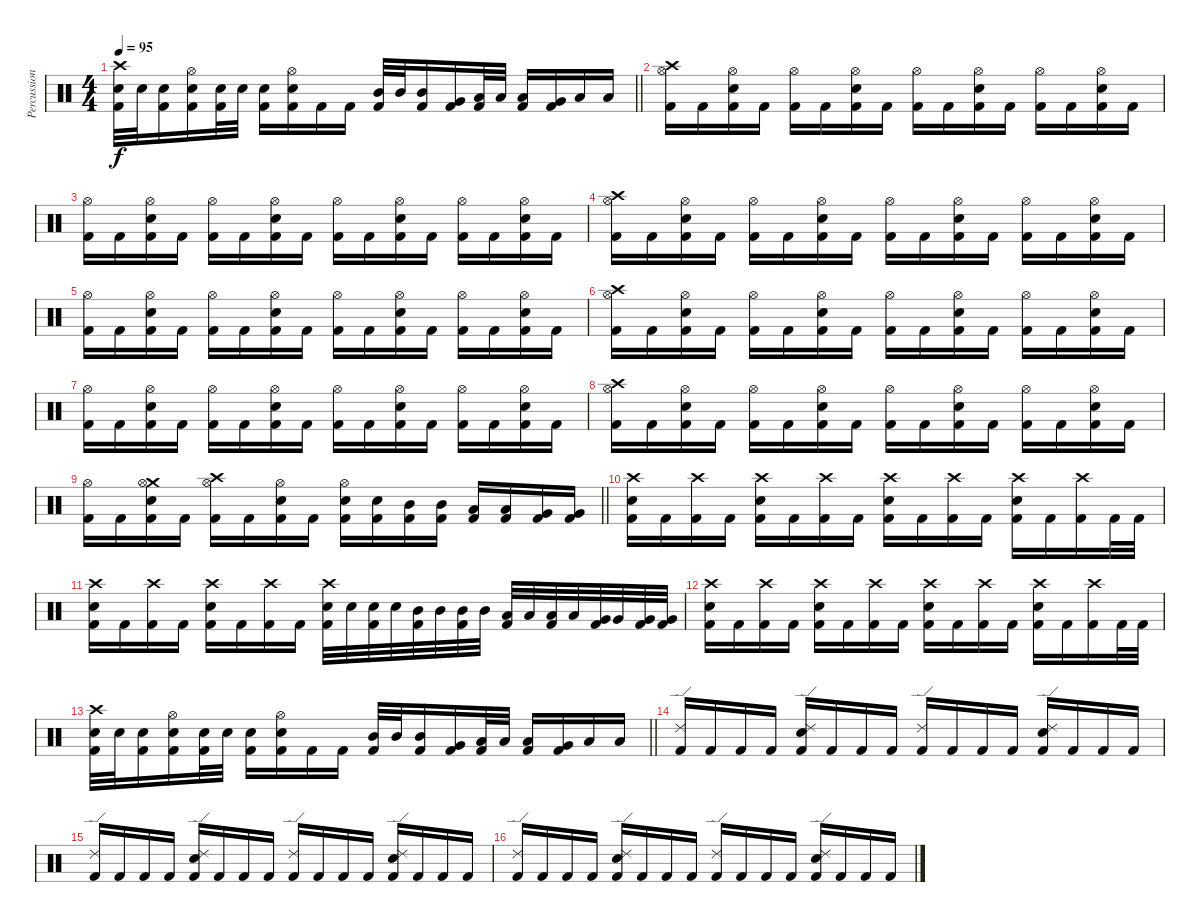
\track ("Percussion" "Percussion") {instrument percussion}
\staff {score}
\articulation defaults
\ts (4 4)
\tempo 95
\clef neutral
\barLineRight lightlight
\ks c
("Crash high (hit)" "Snare (hit) 2" "Kick (hit) 2").32{dy f} "Snare (hit) 2".32 ("Snare (hit) 2" "Kick (hit) 2").16 ("Hi-Hat (open)" "Snare (hit) 2" "Kick (hit) 2").16 ("Snare (hit) 2" "Kick (hit) 2").32 "Snare (hit) 2".32 ("Snare (hit) 2" "Kick (hit) 2").16 ("Hi-Hat (open)" "Snare (hit) 2" "Kick (hit) 2").16 "Kick (hit) 2".16 "Kick (hit) 2".16 ("Mid Tom (hit)" "Kick (hit) 2").32 "Mid Tom (hit)".32 ("Mid Tom (hit)" "Kick (hit) 2").16 ("Very Low Tom (hit)" "Kick (hit) 2").16 ("Low Tom (hit)" "Kick (hit) 2").32 "Low Tom (hit)".32 ("Low Tom (hit)" "Kick (hit) 2").16 ("Very Low Tom (hit)" "Kick (hit) 2").16 "Low Floor Tom (hit)".16 "Low Floor Tom (hit)".16 |
("Crash high (hit)" "Hi-Hat (open)" "Kick (hit) 2").16 "Kick (hit) 2".16 ("Hi-Hat (open)" "Snare (hit) 2" "Kick (hit) 2").16 "Kick (hit) 2".16 ("Hi-Hat (open)" "Kick (hit) 2").16 "Kick (hit) 2".16 ("Hi-Hat (open)" "Snare (hit) 2" "Kick (hit) 2").16 "Kick (hit) 2".16 ("Hi-Hat (open)" "Kick (hit) 2").16 "Kick (hit) 2".16 ("Hi-Hat (open)" "Snare (hit) 2" "Kick (hit) 2").16 "Kick (hit) 2".16 ("Hi-Hat (open)" "Kick (hit) 2").16 "Kick (hit) 2".16 ("Hi-Hat (open)" "Snare (hit) 2" "Kick (hit) 2").16 "Kick (hit) 2".16 |
("Hi-Hat (open)" "Kick (hit) 2").16 "Kick (hit) 2".16 ("Hi-Hat (open)" "Snare (hit) 2" "Kick (hit) 2").16 "Kick (hit) 2".16 ("Hi-Hat (open)" "Kick (hit) 2").16 "Kick (hit) 2".16 ("Hi-Hat (open)" "Snare (hit) 2" "Kick (hit) 2").16 "Kick (hit) 2".16 ("Hi-Hat (open)" "Kick (hit) 2").16 "Kick (hit) 2".16 ("Hi-Hat (open)" "Snare (hit) 2" "Kick (hit) 2").16 "Kick (hit) 2".16 ("Hi-Hat (open)" "Kick (hit) 2").16 "Kick (hit) 2".16 ("Hi-Hat (open)" "Snare (hit) 2" "Kick (hit) 2").16 "Kick (hit) 2".16 |
("Crash high (hit)" "Hi-Hat (open)" "Kick (hit) 2").16 "Kick (hit) 2".16 ("Hi-Hat (open)" "Snare (hit) 2" "Kick (hit) 2").16 "Kick (hit) 2".16 ("Hi-Hat (open)" "Kick (hit) 2").16 "Kick (hit) 2".16 ("Hi-Hat (open)" "Snare (hit) 2" "Kick (hit) 2").16 "Kick (hit) 2".16 ("Hi-Hat (open)" "Kick (hit) 2").16 "Kick (hit) 2".16 ("Hi-Hat (open)" "Snare (hit) 2" "Kick (hit) 2").16 "Kick (hit) 2".16 ("Hi-Hat (open)" "Kick (hit) 2").16 "Kick (hit) 2".16 ("Hi-Hat (open)" "Snare (hit) 2" "Kick (hit) 2").16 "Kick (hit) 2".16 |
("Hi-Hat (open)" "Kick (hit) 2").16 "Kick (hit) 2".16 ("Hi-Hat (open)" "Snare (hit) 2" "Kick (hit) 2").16 "Kick (hit) 2".16 ("Hi-Hat (open)" "Kick (hit) 2").16 "Kick (hit) 2".16 ("Hi-Hat (open)" "Snare (hit) 2" "Kick (hit) 2").16 "Kick (hit) 2".16 ("Hi-Hat (open)" "Kick (hit) 2").16 "Kick (hit) 2".16 ("Hi-Hat (open)" "Snare (hit) 2" "Kick (hit) 2").16 "Kick (hit) 2".16 ("Hi-Hat (open)" "Kick (hit) 2").16 "Kick (hit) 2".16 ("Hi-Hat (open)" "Snare (hit) 2" "Kick (hit) 2").16 "Kick (hit) 2".16 |
("Crash high (hit)" "Hi-Hat (open)" "Kick (hit) 2").16 "Kick (hit) 2".16 ("Hi-Hat (open)" "Snare (hit) 2" "Kick (hit) 2").16 "Kick (hit) 2".16 ("Hi-Hat (open)" "Kick (hit) 2").16 "Kick (hit) 2".16 ("Hi-Hat (open)" "Snare (hit) 2" "Kick (hit) 2").16 "Kick (hit) 2".16 ("Hi-Hat (open)" "Kick (hit) 2").16 "Kick (hit) 2".16 ("Hi-Hat (open)" "Snare (hit) 2" "Kick (hit) 2").16 "Kick (hit) 2".16 ("Hi-Hat (open)" "Kick (hit) 2").16 "Kick (hit) 2".16 ("Hi-Hat (open)" "Snare (hit) 2" "Kick (hit) 2").16 "Kick (hit) 2".16 |
("Hi-Hat (open)" "Kick (hit) 2").16 "Kick (hit) 2".16 ("Hi-Hat (open)" "Snare (hit) 2" "Kick (hit) 2").16 "Kick (hit) 2".16 ("Hi-Hat (open)" "Kick (hit) 2").16 "Kick (hit) 2".16 ("Hi-Hat (open)" "Snare (hit) 2" "Kick (hit) 2").16 "Kick (hit) 2".16 ("Hi-Hat (open)" "Kick (hit) 2").16 "Kick (hit) 2".16 ("Hi-Hat (open)" "Snare (hit) 2" "Kick (hit) 2").16 "Kick (hit) 2".16 ("Hi-Hat (open)" "Kick (hit) 2").16 "Kick (hit) 2".16 ("Hi-Hat (open)" "Snare (hit) 2" "Kick (hit) 2").16 "Kick (hit) 2".16 |
("Crash high (hit)" "Hi-Hat (open)" "Kick (hit) 2").16 "Kick (hit) 2".16 ("Hi-Hat (open)" "Snare (hit) 2" "Kick (hit) 2").16 "Kick (hit) 2".16 ("Hi-Hat (open)" "Kick (hit) 2").16 "Kick (hit) 2".16 ("Hi-Hat (open)" "Snare (hit) 2" "Kick (hit) 2").16 "Kick (hit) 2".16 ("Hi-Hat (open)" "Kick (hit) 2").16 "Kick (hit) 2".16 ("Hi-Hat (open)" "Snare (hit) 2" "Kick (hit) 2").16 "Kick (hit) 2".16 ("Hi-Hat (open)" "Kick (hit) 2").16 "Kick (hit) 2".16 ("Hi-Hat (open)" "Snare (hit) 2" "Kick (hit) 2").16 "Kick (hit) 2".16 |
\barLineRight lightlight
("Hi-Hat (open)" "Kick (hit) 2").16 "Kick (hit) 2".16 ("Crash medium (hit)" "Hi-Hat (open)" "Snare (hit) 2" "Kick (hit) 2").16 "Kick (hit) 2".16 ("Crash high (hit)" "Hi-Hat (open)" "Kick (hit) 2").16 "Kick (hit) 2".16 ("Hi-Hat (open)" "Snare (hit) 2" "Kick (hit) 2").16 "Kick (hit) 2".16 ("Hi-Hat (open)" "Snare (hit) 2" "Kick (hit) 2").16 ("Snare (hit) 2" "Kick (hit) 2").16 ("Mid Tom (hit)" "Kick (hit) 2").16 ("Mid Tom (hit)" "Kick (hit) 2").16 ("Low Tom (hit)" "Kick (hit) 2").16 ("Low Tom (hit)" "Kick (hit) 2").16 ("Very Low Tom (hit)" "Kick (hit) 2").16 ("Very Low Tom (hit)" "Kick (hit) 2").16 |
("Crash high (hit)" "Snare (hit) 2" "Kick (hit) 2").16 "Kick (hit) 2".16 ("Crash high (hit)" "Kick (hit) 2").16 "Kick (hit) 2".16 ("Crash high (hit)" "Snare (hit) 2" "Kick (hit) 2").16 "Kick (hit) 2".16 ("Crash high (hit)" "Kick (hit) 2").16 "Kick (hit) 2".16 ("Crash high (hit)" "Snare (hit) 2" "Kick (hit) 2").16 "Kick (hit) 2".16 ("Crash high (hit)" "Kick (hit) 2").16 "Kick (hit) 2".16 ("Crash high (hit)" "Snare (hit) 2" "Kick (hit) 2").16 "Kick (hit) 2".16 ("Crash high (hit)" "Kick (hit) 2").16 "Kick (hit) 2".32 "Kick (hit) 2".32 |
("Crash high (hit)" "Snare (hit) 2" "Kick (hit) 2").16 "Kick (hit) 2".16 ("Crash high (hit)" "Kick (hit) 2").16 "Kick (hit) 2".16 ("Crash high (hit)" "Snare (hit) 2" "Kick (hit) 2").16 "Kick (hit) 2".16 ("Crash high (hit)" "Kick (hit) 2").16 "Kick (hit) 2".16 ("Crash high (hit)" "Snare (hit) 2" "Kick (hit) 2").32 "Snare (hit) 2".32 ("Snare (hit) 2" "Kick (hit) 2").32 "Snare (hit) 2".32 ("Mid Tom (hit)" "Kick (hit) 2").32 "Mid Tom (hit)".32 ("Mid Tom (hit)" "Kick (hit) 2").32 "Mid Tom (hit)".32 ("Low Tom (hit)" "Kick (hit) 2").32 "Low Tom (hit)".32 ("Low Tom (hit)" "Kick (hit) 2").32 "Low Tom (hit)".32 ("Very Low Tom (hit)" "Kick (hit) 2").32 "Very Low Tom (hit)".32 ("Very Low Tom (hit)" "Kick (hit) 2").32 ("Very Low Tom (hit)" "Kick (hit) 2").32 |
("Crash high (hit)" "Snare (hit) 2" "Kick (hit) 2").16 "Kick (hit) 2".16 ("Crash high (hit)" "Kick (hit) 2").16 "Kick (hit) 2".16 ("Crash high (hit)" "Snare (hit) 2" "Kick (hit) 2").16 "Kick (hit) 2".16 ("Crash high (hit)" "Kick (hit) 2").16 "Kick (hit) 2".16 ("Crash high (hit)" "Snare (hit) 2" "Kick (hit) 2").16 "Kick (hit) 2".16 ("Crash high (hit)" "Kick (hit) 2").16 "Kick (hit) 2".16 ("Crash high (hit)" "Snare (hit) 2" "Kick (hit) 2").16 "Kick (hit) 2".16 ("Crash high (hit)" "Kick (hit) 2").16 "Kick (hit) 2".32 "Kick (hit) 2".32 |
\barLineRight lightlight
("Crash high (hit)" "Snare (hit) 2" "Kick (hit) 2").32 "Snare (hit) 2".32 ("Snare (hit) 2" "Kick (hit) 2").16 ("Hi-Hat (open)" "Snare (hit) 2" "Kick (hit) 2").16 ("Snare (hit) 2" "Kick (hit) 2").32 "Snare (hit) 2".32 ("Snare (hit) 2" "Kick (hit) 2").16 ("Hi-Hat (open)" "Snare (hit) 2" "Kick (hit) 2").16 "Kick (hit) 2".16 "Kick (hit) 2".16 ("Mid Tom (hit)" "Kick (hit) 2").32 "Mid Tom (hit)".32 ("Mid Tom (hit)" "Kick (hit) 2").16 ("Very Low Tom (hit)" "Kick (hit) 2").16 ("Low Tom (hit)" "Kick (hit) 2").32 "Low Tom (hit)".32 ("Low Tom (hit)" "Kick (hit) 2").16 ("Very Low Tom (hit)" "Kick (hit) 2").16 "Low Floor Tom (hit)".16 "Low Floor Tom (hit)".16 |
("Ride (edge) 2" "Kick (hit) 2").16 "Kick (hit) 2".16 "Kick (hit) 2".16 "Kick (hit) 2".16 ("Ride (edge) 2" "Snare (hit) 2" "Kick (hit) 2").16 "Kick (hit) 2".16 "Kick (hit) 2".16 "Kick (hit) 2".16 ("Ride (edge) 2" "Kick (hit) 2").16 "Kick (hit) 2".16 "Kick (hit) 2".16 "Kick (hit) 2".16 ("Ride (edge) 2" "Snare (hit) 2" "Kick (hit) 2").16 "Kick (hit) 2".16 "Kick (hit) 2".16 "Kick (hit) 2".16 |
("Ride (edge) 2" "Kick (hit) 2").16 "Kick (hit) 2".16 "Kick (hit) 2".16 "Kick (hit) 2".16 ("Ride (edge) 2" "Snare (hit) 2" "Kick (hit) 2").16 "Kick (hit) 2".16 "Kick (hit) 2".16 "Kick (hit) 2".16 ("Ride (edge) 2" "Kick (hit) 2").16 "Kick (hit) 2".16 "Kick (hit) 2".16 "Kick (hit) 2".16 ("Ride (edge) 2" "Snare (hit) 2" "Kick (hit) 2").16 "Kick (hit) 2".16 "Kick (hit) 2".16 "Kick (hit) 2".16 |
("Ride (edge) 2" "Kick (hit) 2").16 "Kick (hit) 2".16 "Kick (hit) 2".16 "Kick (hit) 2".16 ("Ride (edge) 2" "Snare (hit) 2" "Kick (hit) 2").16 "Kick (hit) 2".16 "Kick (hit) 2".16 "Kick (hit) 2".16 ("Ride (edge) 2" "Kick (hit) 2").16 "Kick (hit) 2".16 "Kick (hit) 2".16 "Kick (hit) 2".16 ("Ride (edge) 2" "Snare (hit) 2" "Kick (hit) 2").16 "Kick (hit) 2".16 "Kick (hit) 2".16 "Kick (hit) 2".16
